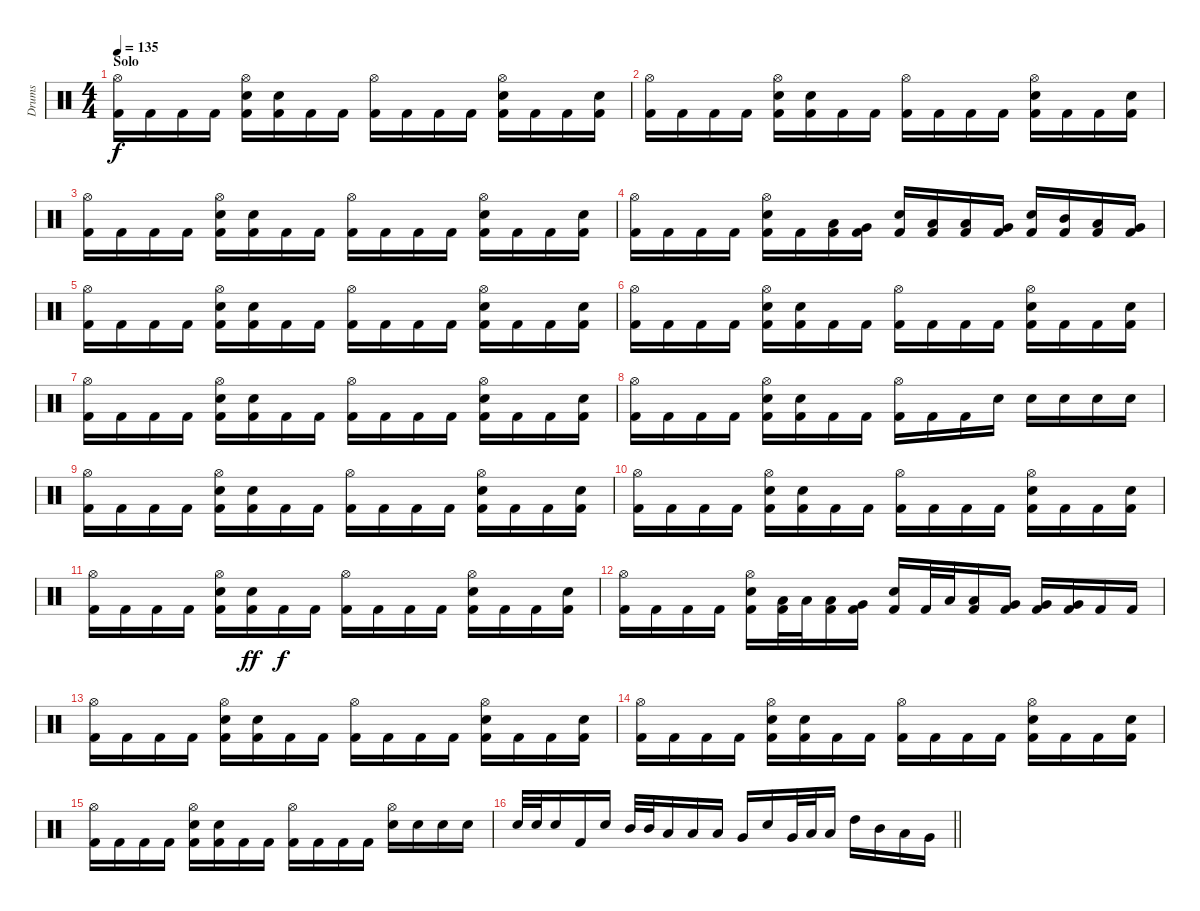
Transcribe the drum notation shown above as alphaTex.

\track ("Drums" "Drums") {instrument percussion}
\staff {score}
\articulation defaults
\ts (4 4)
\section ("" "Solo")
\tempo 135
\clef neutral
\ks c
("Hi-Hat (open)" "Kick (hit) 2").16{dy f} "Kick (hit) 2".16 "Kick (hit) 2".16 "Kick (hit) 2".16 ("Hi-Hat (open)" "Electric Snare (hit)" "Kick (hit) 2").16 ("Electric Snare (hit)" "Kick (hit) 2").16 "Kick (hit) 2".16 "Kick (hit) 2".16 ("Hi-Hat (open)" "Kick (hit) 2").16 "Kick (hit) 2".16 "Kick (hit) 2".16 "Kick (hit) 2".16 ("Hi-Hat (open)" "Electric Snare (hit)" "Kick (hit) 2").16 "Kick (hit) 2".16 "Kick (hit) 2".16 ("Electric Snare (hit)" "Kick (hit) 2").16 |
("Hi-Hat (open)" "Kick (hit) 2").16 "Kick (hit) 2".16 "Kick (hit) 2".16 "Kick (hit) 2".16 ("Hi-Hat (open)" "Electric Snare (hit)" "Kick (hit) 2").16 ("Electric Snare (hit)" "Kick (hit) 2").16 "Kick (hit) 2".16 "Kick (hit) 2".16 ("Hi-Hat (open)" "Kick (hit) 2").16 "Kick (hit) 2".16 "Kick (hit) 2".16 "Kick (hit) 2".16 ("Hi-Hat (open)" "Electric Snare (hit)" "Kick (hit) 2").16 "Kick (hit) 2".16 "Kick (hit) 2".16 ("Electric Snare (hit)" "Kick (hit) 2").16 |
("Hi-Hat (open)" "Kick (hit) 2").16 "Kick (hit) 2".16 "Kick (hit) 2".16 "Kick (hit) 2".16 ("Hi-Hat (open)" "Electric Snare (hit)" "Kick (hit) 2").16 ("Electric Snare (hit)" "Kick (hit) 2").16 "Kick (hit) 2".16 "Kick (hit) 2".16 ("Hi-Hat (open)" "Kick (hit) 2").16 "Kick (hit) 2".16 "Kick (hit) 2".16 "Kick (hit) 2".16 ("Hi-Hat (open)" "Electric Snare (hit)" "Kick (hit) 2").16 "Kick (hit) 2".16 "Kick (hit) 2".16 ("Electric Snare (hit)" "Kick (hit) 2").16 |
("Hi-Hat (open)" "Kick (hit) 2").16 "Kick (hit) 2".16 "Kick (hit) 2".16 "Kick (hit) 2".16 ("Hi-Hat (open)" "Electric Snare (hit)" "Kick (hit) 2").16 "Kick (hit) 2".16 ("Low Tom (hit)" "Kick (hit) 2").16 ("Very Low Tom (hit)" "Kick (hit) 2").16 ("Electric Snare (hit)" "Kick (hit) 2").16 ("Low Tom (hit)" "Kick (hit) 2").16 ("Low Tom (hit)" "Kick (hit) 2").16 ("Very Low Tom (hit)" "Kick (hit) 2").16 ("Electric Snare (hit)" "Kick (hit) 2").16 ("Mid Tom (hit)" "Kick (hit) 2").16 ("Low Tom (hit)" "Kick (hit) 2").16 ("Very Low Tom (hit)" "Kick (hit) 2").16 |
("Hi-Hat (open)" "Kick (hit) 2").16 "Kick (hit) 2".16 "Kick (hit) 2".16 "Kick (hit) 2".16 ("Hi-Hat (open)" "Electric Snare (hit)" "Kick (hit) 2").16 ("Electric Snare (hit)" "Kick (hit) 2").16 "Kick (hit) 2".16 "Kick (hit) 2".16 ("Hi-Hat (open)" "Kick (hit) 2").16 "Kick (hit) 2".16 "Kick (hit) 2".16 "Kick (hit) 2".16 ("Hi-Hat (open)" "Electric Snare (hit)" "Kick (hit) 2").16 "Kick (hit) 2".16 "Kick (hit) 2".16 ("Electric Snare (hit)" "Kick (hit) 2").16 |
("Hi-Hat (open)" "Kick (hit) 2").16 "Kick (hit) 2".16 "Kick (hit) 2".16 "Kick (hit) 2".16 ("Hi-Hat (open)" "Electric Snare (hit)" "Kick (hit) 2").16 ("Electric Snare (hit)" "Kick (hit) 2").16 "Kick (hit) 2".16 "Kick (hit) 2".16 ("Hi-Hat (open)" "Kick (hit) 2").16 "Kick (hit) 2".16 "Kick (hit) 2".16 "Kick (hit) 2".16 ("Hi-Hat (open)" "Electric Snare (hit)" "Kick (hit) 2").16 "Kick (hit) 2".16 "Kick (hit) 2".16 ("Electric Snare (hit)" "Kick (hit) 2").16 |
("Hi-Hat (open)" "Kick (hit) 2").16 "Kick (hit) 2".16 "Kick (hit) 2".16 "Kick (hit) 2".16 ("Hi-Hat (open)" "Electric Snare (hit)" "Kick (hit) 2").16 ("Electric Snare (hit)" "Kick (hit) 2").16 "Kick (hit) 2".16 "Kick (hit) 2".16 ("Hi-Hat (open)" "Kick (hit) 2").16 "Kick (hit) 2".16 "Kick (hit) 2".16 "Kick (hit) 2".16 ("Hi-Hat (open)" "Electric Snare (hit)" "Kick (hit) 2").16 "Kick (hit) 2".16 "Kick (hit) 2".16 ("Electric Snare (hit)" "Kick (hit) 2").16 |
("Hi-Hat (open)" "Kick (hit) 2").16 "Kick (hit) 2".16 "Kick (hit) 2".16 "Kick (hit) 2".16 ("Hi-Hat (open)" "Electric Snare (hit)" "Kick (hit) 2").16 ("Electric Snare (hit)" "Kick (hit) 2").16 "Kick (hit) 2".16 "Kick (hit) 2".16 ("Hi-Hat (open)" "Kick (hit) 2").16 "Kick (hit) 2".16 "Kick (hit) 2".16 "Electric Snare (hit)".16 "Electric Snare (hit)".16 "Electric Snare (hit)".16 "Electric Snare (hit)".16 "Electric Snare (hit)".16 |
("Hi-Hat (open)" "Kick (hit) 2").16 "Kick (hit) 2".16 "Kick (hit) 2".16 "Kick (hit) 2".16 ("Hi-Hat (open)" "Electric Snare (hit)" "Kick (hit) 2").16 ("Electric Snare (hit)" "Kick (hit) 2").16 "Kick (hit) 2".16 "Kick (hit) 2".16 ("Hi-Hat (open)" "Kick (hit) 2").16 "Kick (hit) 2".16 "Kick (hit) 2".16 "Kick (hit) 2".16 ("Hi-Hat (open)" "Electric Snare (hit)" "Kick (hit) 2").16 "Kick (hit) 2".16 "Kick (hit) 2".16 ("Electric Snare (hit)" "Kick (hit) 2").16 |
("Hi-Hat (open)" "Kick (hit) 2").16 "Kick (hit) 2".16 "Kick (hit) 2".16 "Kick (hit) 2".16 ("Hi-Hat (open)" "Electric Snare (hit)" "Kick (hit) 2").16 ("Electric Snare (hit)" "Kick (hit) 2").16 "Kick (hit) 2".16 "Kick (hit) 2".16 ("Hi-Hat (open)" "Kick (hit) 2").16 "Kick (hit) 2".16 "Kick (hit) 2".16 "Kick (hit) 2".16 ("Hi-Hat (open)" "Electric Snare (hit)" "Kick (hit) 2").16 "Kick (hit) 2".16 "Kick (hit) 2".16 ("Electric Snare (hit)" "Kick (hit) 2").16 |
("Hi-Hat (open)" "Kick (hit) 2").16 "Kick (hit) 2".16 "Kick (hit) 2".16 "Kick (hit) 2".16 ("Hi-Hat (open)" "Electric Snare (hit)" "Kick (hit) 2").16 ("Electric Snare (hit)" "Kick (hit) 2").16{dy ff} "Kick (hit) 2".16{dy f} "Kick (hit) 2".16 ("Hi-Hat (open)" "Kick (hit) 2").16 "Kick (hit) 2".16 "Kick (hit) 2".16 "Kick (hit) 2".16 ("Hi-Hat (open)" "Electric Snare (hit)" "Kick (hit) 2").16 "Kick (hit) 2".16 "Kick (hit) 2".16 ("Electric Snare (hit)" "Kick (hit) 2").16 |
("Hi-Hat (open)" "Kick (hit) 2").16 "Kick (hit) 2".16 "Kick (hit) 2".16 "Kick (hit) 2".16 ("Hi-Hat (open)" "Electric Snare (hit)" "Kick (hit) 2").16 ("Low Tom (hit)" "Kick (hit) 2").32 "Low Tom (hit)".32 ("Low Tom (hit)" "Kick (hit) 2").16 ("Very Low Tom (hit)" "Kick (hit) 2").16 ("Electric Snare (hit)" "Kick (hit) 2").16 "Kick (hit) 2".32 "Low Tom (hit)".32 ("Low Tom (hit)" "Kick (hit) 2").16 ("Very Low Tom (hit)" "Kick (hit) 2").16 ("Very Low Tom (hit)" "Kick (hit) 2").16 ("Very Low Tom (hit)" "Kick (hit) 2").16 "Kick (hit) 2".16 "Kick (hit) 2".16 |
("Hi-Hat (open)" "Kick (hit) 2").16 "Kick (hit) 2".16 "Kick (hit) 2".16 "Kick (hit) 2".16 ("Hi-Hat (open)" "Electric Snare (hit)" "Kick (hit) 2").16 ("Electric Snare (hit)" "Kick (hit) 2").16 "Kick (hit) 2".16 "Kick (hit) 2".16 ("Hi-Hat (open)" "Kick (hit) 2").16 "Kick (hit) 2".16 "Kick (hit) 2".16 "Kick (hit) 2".16 ("Hi-Hat (open)" "Electric Snare (hit)" "Kick (hit) 2").16 "Kick (hit) 2".16 "Kick (hit) 2".16 ("Electric Snare (hit)" "Kick (hit) 2").16 |
("Hi-Hat (open)" "Kick (hit) 2").16 "Kick (hit) 2".16 "Kick (hit) 2".16 "Kick (hit) 2".16 ("Hi-Hat (open)" "Electric Snare (hit)" "Kick (hit) 2").16 ("Electric Snare (hit)" "Kick (hit) 2").16 "Kick (hit) 2".16 "Kick (hit) 2".16 ("Hi-Hat (open)" "Kick (hit) 2").16 "Kick (hit) 2".16 "Kick (hit) 2".16 "Kick (hit) 2".16 ("Hi-Hat (open)" "Electric Snare (hit)" "Kick (hit) 2").16 "Kick (hit) 2".16 "Kick (hit) 2".16 ("Electric Snare (hit)" "Kick (hit) 2").16 |
("Hi-Hat (open)" "Kick (hit) 2").16 "Kick (hit) 2".16 "Kick (hit) 2".16 "Kick (hit) 2".16 ("Hi-Hat (open)" "Electric Snare (hit)" "Kick (hit) 2").16 ("Electric Snare (hit)" "Kick (hit) 2").16 "Kick (hit) 2".16 "Kick (hit) 2".16 ("Hi-Hat (open)" "Kick (hit) 2").16 "Kick (hit) 2".16 "Kick (hit) 2".16 "Kick (hit) 2".16 ("Hi-Hat (open)" "Electric Snare (hit)").16 "Electric Snare (hit)".16 "Electric Snare (hit)".16 "Electric Snare (hit)".16 |
\barLineRight lightlight "Electric Snare (hit)".32 "Electric Snare (hit)".32 "Electric Snare (hit)".16 "Kick (hit) 2".16 "Electric Snare (hit)".16 "Mid Tom (hit)".32 "Mid Tom (hit)".32 "Low Tom (hit)".16 "Low Tom (hit)".16 "Low Tom (hit)".16 "Very Low Tom (hit)".16 "Electric Snare (hit)".16 "Very Low Tom (hit)".32 "Low Tom (hit)".32 "Low Tom (hit)".16 "High Tom (hit)".16 "Mid Tom (hit)".16 "Low Tom (hit)".16 "Very Low Tom (hit)".16
